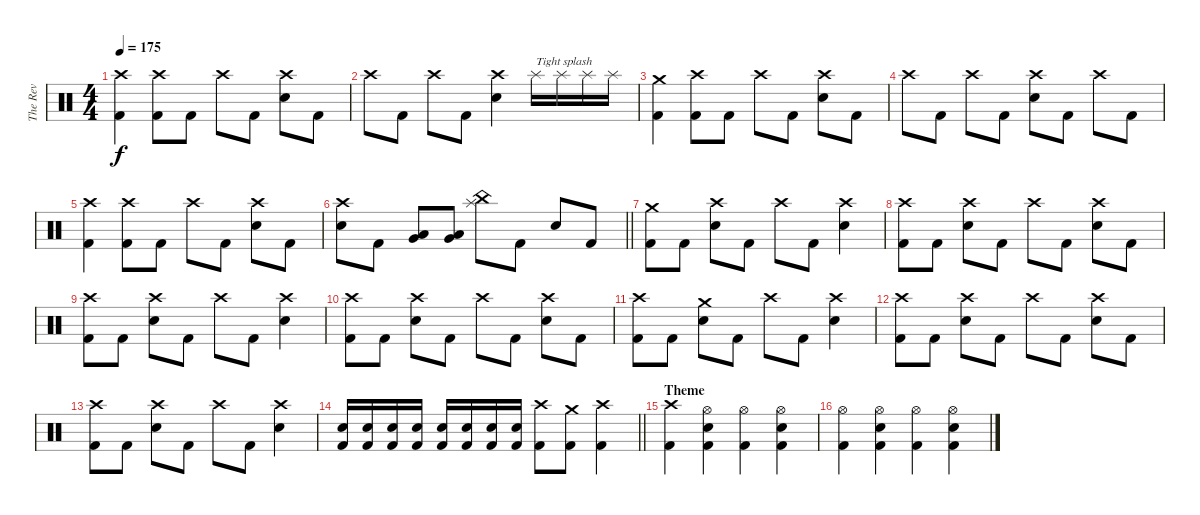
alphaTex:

\track ("The Rev" "The Rev") {instrument percussion}
\staff {score}
\articulation defaults
\ts (4 4)
\tempo 175
\clef neutral
\ks c
("Crash high (hit)" "Kick (hit) 2").4{dy f} ("Crash high (hit)" "Kick (hit) 2").8 "Kick (hit) 2".8 "Crash high (hit)".8 "Kick (hit) 2".8 ("Crash high (hit)" "Snare (hit) 2").8 "Kick (hit) 2".8 |
"Crash high (hit)".8 "Kick (hit) 2".8 "Crash high (hit)".8 "Kick (hit) 2".8 ("Crash high (hit)" "Snare (hit) 2").4 "Splash (hit)".16{txt "Tight splash"} "Splash (hit)".16 "Splash (hit)".16 "Splash (hit)".16 |
("Crash medium (hit)" "Kick (hit) 2").4 ("Crash high (hit)" "Kick (hit) 2").8 "Kick (hit) 2".8 "Crash high (hit)".8 "Kick (hit) 2".8 ("Crash high (hit)" "Snare (hit) 2").8 "Kick (hit) 2".8 |
"Crash high (hit)".8 "Kick (hit) 2".8 "Crash high (hit)".8 "Kick (hit) 2".8 ("Crash high (hit)" "Snare (hit) 2").8 "Kick (hit) 2".8 "Crash high (hit)".8 "Kick (hit) 2".8 |
("Crash high (hit)" "Kick (hit) 2").4 ("Crash high (hit)" "Kick (hit) 2").8 "Kick (hit) 2".8 "Crash high (hit)".8 "Kick (hit) 2".8 ("Crash high (hit)" "Snare (hit) 2").8 "Kick (hit) 2".8 |
\barLineRight lightlight
("Crash high (hit)" "Snare (hit) 2").8 "Kick (hit) 2".8 ("Very Low Tom (hit)" "Low Floor Tom (hit)").8 ("Very Low Tom (hit)" "Low Floor Tom (hit)").8 ("China (hit)" "Splash (hit)").8 "Kick (hit) 2".8 "Snare (hit) 2".8 "Kick (hit) 2".8 |
("Crash medium (hit)" "Kick (hit) 2").8 "Kick (hit) 2".8 ("Crash high (hit)" "Snare (hit) 2").8 "Kick (hit) 2".8 "Crash high (hit)".8 "Kick (hit) 2".8 ("Crash high (hit)" "Snare (hit) 2").4 |
("Crash high (hit)" "Kick (hit) 2").8 "Kick (hit) 2".8 ("Crash high (hit)" "Snare (hit) 2").8 "Kick (hit) 2".8 "Crash high (hit)".8 "Kick (hit) 2".8 ("Crash high (hit)" "Snare (hit) 2").8 "Kick (hit) 2".8 |
("Crash high (hit)" "Kick (hit) 2").8 "Kick (hit) 2".8 ("Crash high (hit)" "Snare (hit) 2").8 "Kick (hit) 2".8 "Crash high (hit)".8 "Kick (hit) 2".8 ("Crash high (hit)" "Snare (hit) 2").4 |
("Crash high (hit)" "Kick (hit) 2").8 "Kick (hit) 2".8 ("Crash high (hit)" "Snare (hit) 2").8 "Kick (hit) 2".8 "Crash high (hit)".8 "Kick (hit) 2".8 ("Crash high (hit)" "Snare (hit) 2").8 "Kick (hit) 2".8 |
("Crash high (hit)" "Kick (hit) 2").8 "Kick (hit) 2".8 ("Crash medium (hit)" "Snare (hit) 2").8 "Kick (hit) 2".8 "Crash high (hit)".8 "Kick (hit) 2".8 ("Crash high (hit)" "Snare (hit) 2").4 |
("Crash high (hit)" "Kick (hit) 2").8 "Kick (hit) 2".8 ("Crash high (hit)" "Snare (hit) 2").8 "Kick (hit) 2".8 "Crash high (hit)".8 "Kick (hit) 2".8 ("Crash high (hit)" "Snare (hit) 2").8 "Kick (hit) 2".8 |
("Crash high (hit)" "Kick (hit) 2").8 "Kick (hit) 2".8 ("Crash high (hit)" "Snare (hit) 2").8 "Kick (hit) 2".8 "Crash high (hit)".8 "Kick (hit) 2".8 ("Crash high (hit)" "Snare (hit) 2").4 |
\barLineRight lightlight
("Snare (hit) 2" "Kick (hit) 2").16 ("Snare (hit) 2" "Kick (hit) 2").16 ("Snare (hit) 2" "Kick (hit) 2").16 ("Snare (hit) 2" "Kick (hit) 2").16 ("Snare (hit) 2" "Kick (hit) 2").16 ("Snare (hit) 2" "Kick (hit) 2").16 ("Snare (hit) 2" "Kick (hit) 2").16 ("Snare (hit) 2" "Kick (hit) 2").16 ("Crash high (hit)" "Kick (hit) 2").8 ("Crash medium (hit)" "Kick (hit) 2").8 ("Crash high (hit)" "Kick (hit) 2").4 |
\section ("" "Theme")
("Crash high (hit)" "Kick (hit) 2").4 ("Hi-Hat (open)" "Snare (hit) 2" "Kick (hit) 2").4 ("Hi-Hat (open)" "Kick (hit) 2").4 ("Hi-Hat (open)" "Snare (hit) 2" "Kick (hit) 2").4 |
("Hi-Hat (open)" "Kick (hit) 2").4 ("Hi-Hat (open)" "Snare (hit) 2" "Kick (hit) 2").4 ("Hi-Hat (open)" "Kick (hit) 2").4 ("Hi-Hat (open)" "Snare (hit) 2" "Kick (hit) 2").4
